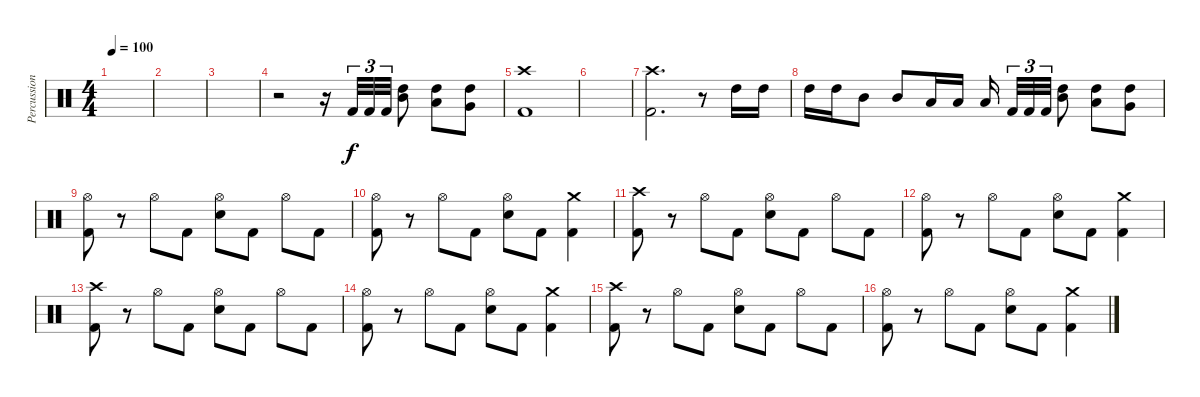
\track ("Percussion" "Percussion") {instrument percussion}
\staff {score}
\articulation defaults
\ts (4 4)
\tempo 100
\clef neutral
\ks c
|
|
|
r.2 r.16 "Kick (hit) 2".32{tu (3 2)} "Kick (hit) 2".32{tu (3 2)} "Kick (hit) 2".32{tu (3 2)} ("High Tom (hit)" "Mid Tom (hit)").8 ("High Tom (hit)" "Low Tom (hit)").8 ("High Tom (hit)" "Very Low Tom (hit)").8 |
("Crash high (hit)" "Kick (hit) 2").1 |
|
("Crash high (hit)" "Kick (hit) 2").2{d} r.8 "High Tom (hit)".16 "High Tom (hit)".16 |
"High Tom (hit)".16 "High Tom (hit)".16 "Mid Tom (hit)".8 "Mid Tom (hit)".8 "Low Tom (hit)".16 "Low Tom (hit)".16 "Low Tom (hit)".16{beam splitsecondary} "Kick (hit) 2".32{tu (3 2)} "Kick (hit) 2".32{tu (3 2)} "Kick (hit) 2".32{tu (3 2)} ("High Tom (hit)" "Mid Tom (hit)").8 ("High Tom (hit)" "Low Tom (hit)").8 ("High Tom (hit)" "Very Low Tom (hit)").8 |
("Hi-Hat (open)" "Kick (hit) 2").8 r.8 "Hi-Hat (open)".8 "Kick (hit) 2".8 ("Hi-Hat (open)" "Electric Snare (hit)").8 "Kick (hit) 2".8 "Hi-Hat (open)".8 "Kick (hit) 2".8 |
("Hi-Hat (open)" "Kick (hit) 2").8 r.8 "Hi-Hat (open)".8 "Kick (hit) 2".8 ("Hi-Hat (open)" "Electric Snare (hit)").8 "Kick (hit) 2".8 ("Crash medium (hit)" "Kick (hit) 2").4 |
("Crash high (hit)" "Kick (hit) 2").8 r.8 "Hi-Hat (open)".8 "Kick (hit) 2".8 ("Hi-Hat (open)" "Electric Snare (hit)").8 "Kick (hit) 2".8 "Hi-Hat (open)".8 "Kick (hit) 2".8 |
("Hi-Hat (open)" "Kick (hit) 2").8 r.8 "Hi-Hat (open)".8 "Kick (hit) 2".8 ("Hi-Hat (open)" "Electric Snare (hit)").8 "Kick (hit) 2".8 ("Crash medium (hit)" "Kick (hit) 2").4 |
("Crash high (hit)" "Kick (hit) 2").8 r.8 "Hi-Hat (open)".8 "Kick (hit) 2".8 ("Hi-Hat (open)" "Electric Snare (hit)").8 "Kick (hit) 2".8 "Hi-Hat (open)".8 "Kick (hit) 2".8 |
("Hi-Hat (open)" "Kick (hit) 2").8 r.8 "Hi-Hat (open)".8 "Kick (hit) 2".8 ("Hi-Hat (open)" "Electric Snare (hit)").8 "Kick (hit) 2".8 ("Crash medium (hit)" "Kick (hit) 2").4 |
("Crash high (hit)" "Kick (hit) 2").8 r.8 "Hi-Hat (open)".8 "Kick (hit) 2".8 ("Hi-Hat (open)" "Electric Snare (hit)").8 "Kick (hit) 2".8 "Hi-Hat (open)".8 "Kick (hit) 2".8 |
("Hi-Hat (open)" "Kick (hit) 2").8 r.8 "Hi-Hat (open)".8 "Kick (hit) 2".8 ("Hi-Hat (open)" "Electric Snare (hit)").8 "Kick (hit) 2".8 ("Crash medium (hit)" "Kick (hit) 2").4
